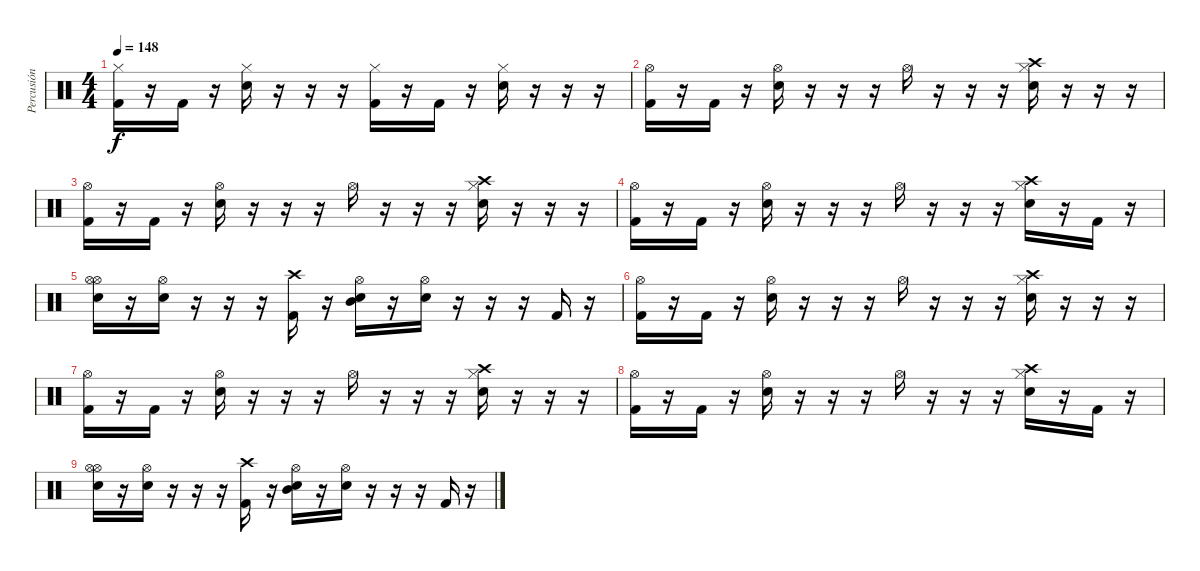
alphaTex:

\track ("Percusión" "Percusión") {instrument percussion}
\staff {score}
\articulation defaults
\ts (4 4)
\tempo 148
\clef neutral
\ks c
("Hi-Hat (closed)" "Kick (hit) 2").16{dy f} r.16 "Kick (hit) 2".16 r.16 ("Hi-Hat (closed)" "Electric Snare (hit)").16 r.16 r.16 r.16 ("Hi-Hat (closed)" "Kick (hit) 2").16 r.16 "Kick (hit) 2".16 r.16 ("Hi-Hat (closed)" "Electric Snare (hit)").16 r.16 r.16 r.16 |
("Hi-Hat (open)" "Kick (hit) 2").16 r.16 "Kick (hit) 2".16 r.16 ("Hi-Hat (open)" "Electric Snare (hit)").16 r.16 r.16 r.16 "Hi-Hat (open)".16 r.16 r.16 r.16 ("Crash high (hit)" "Hi-Hat (closed)" "Electric Snare (hit)").16 r.16 r.16 r.16 |
("Hi-Hat (open)" "Kick (hit) 2").16 r.16 "Kick (hit) 2".16 r.16 ("Hi-Hat (open)" "Electric Snare (hit)").16 r.16 r.16 r.16 "Hi-Hat (open)".16 r.16 r.16 r.16 ("Crash high (hit)" "Hi-Hat (closed)" "Electric Snare (hit)").16 r.16 r.16 r.16 |
("Hi-Hat (open)" "Kick (hit) 2").16 r.16 "Kick (hit) 2".16 r.16 ("Hi-Hat (open)" "Electric Snare (hit)").16 r.16 r.16 r.16 "Hi-Hat (open)".16 r.16 r.16 r.16 ("Crash high (hit)" "Hi-Hat (closed)" "Electric Snare (hit)").16 r.16 "Kick (hit) 2".16 r.16 |
("Hi-Hat (open)" "Hi-Hat (open)" "Electric Snare (hit)").16 r.16 ("Hi-Hat (open)" "Electric Snare (hit)").16 r.16 r.16 r.16 ("Crash high (hit)" "Kick (hit) 2").16 r.16 ("Hi-Hat (open)" "Mid Tom (hit)" "Electric Snare (hit)").16 r.16 ("Hi-Hat (open)" "Electric Snare (hit)").16 r.16 r.16 r.16 "Kick (hit) 2".16 r.16 |
("Hi-Hat (open)" "Kick (hit) 2").16 r.16 "Kick (hit) 2".16 r.16 ("Hi-Hat (open)" "Electric Snare (hit)").16 r.16 r.16 r.16 "Hi-Hat (open)".16 r.16 r.16 r.16 ("Crash high (hit)" "Hi-Hat (closed)" "Electric Snare (hit)").16 r.16 r.16 r.16 |
("Hi-Hat (open)" "Kick (hit) 2").16 r.16 "Kick (hit) 2".16 r.16 ("Hi-Hat (open)" "Electric Snare (hit)").16 r.16 r.16 r.16 "Hi-Hat (open)".16 r.16 r.16 r.16 ("Crash high (hit)" "Hi-Hat (closed)" "Electric Snare (hit)").16 r.16 r.16 r.16 |
("Hi-Hat (open)" "Kick (hit) 2").16 r.16 "Kick (hit) 2".16 r.16 ("Hi-Hat (open)" "Electric Snare (hit)").16 r.16 r.16 r.16 "Hi-Hat (open)".16 r.16 r.16 r.16 ("Crash high (hit)" "Hi-Hat (closed)" "Electric Snare (hit)").16 r.16 "Kick (hit) 2".16 r.16 |
("Hi-Hat (open)" "Hi-Hat (open)" "Electric Snare (hit)").16 r.16 ("Hi-Hat (open)" "Electric Snare (hit)").16 r.16 r.16 r.16 ("Crash high (hit)" "Kick (hit) 2").16 r.16 ("Hi-Hat (open)" "Mid Tom (hit)" "Electric Snare (hit)").16 r.16 ("Hi-Hat (open)" "Electric Snare (hit)").16 r.16 r.16 r.16 "Kick (hit) 2".16 r.16
